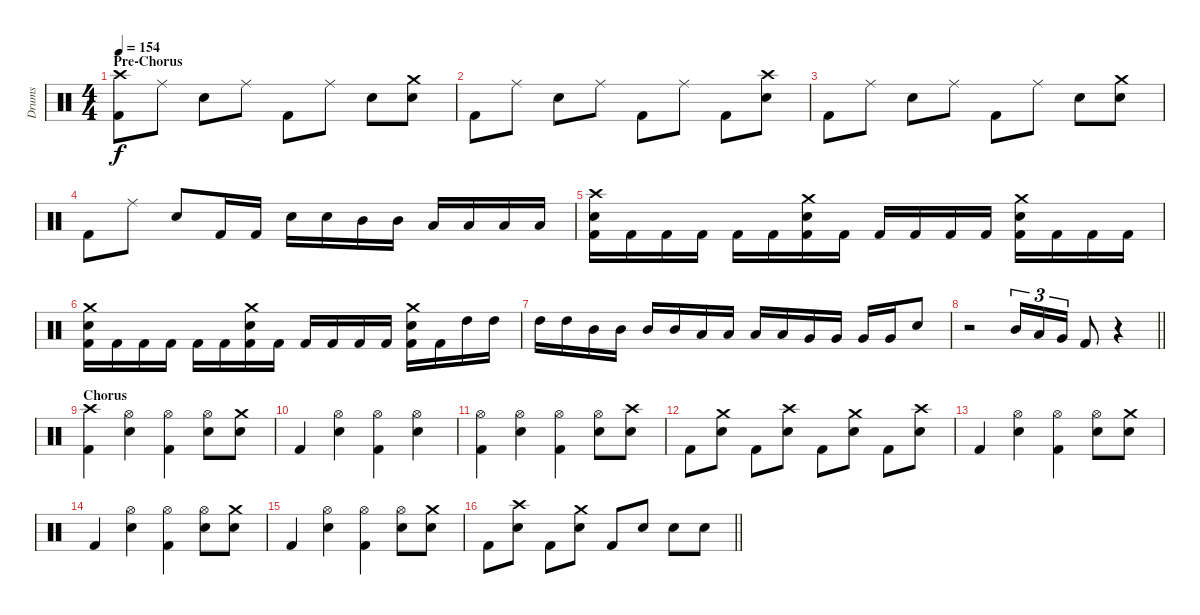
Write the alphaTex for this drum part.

\track ("Drums" "Drums") {instrument percussion}
\staff {score}
\articulation defaults
\ts (4 4)
\section ("" "Pre-Chorus")
\tempo 154
\clef neutral
\ks c
("Crash high (hit)" "Kick (hit) 2").8{dy f} "Ride (middle)".8 "Snare (hit) 2".8 "Ride (middle)".8 "Kick (hit) 2".8 "Ride (middle)".8 "Snare (hit) 2".8 ("Crash medium (hit)" "Snare (hit) 2").8 |
"Kick (hit) 2".8 "Ride (middle)".8 "Snare (hit) 2".8 "Ride (middle)".8 "Kick (hit) 2".8 "Ride (middle)".8 "Kick (hit) 2".8 ("Crash high (hit)" "Snare (hit) 2").8 |
"Kick (hit) 2".8 "Ride (middle)".8 "Snare (hit) 2".8 "Ride (middle)".8 "Kick (hit) 2".8 "Ride (middle)".8 "Snare (hit) 2".8 ("Crash medium (hit)" "Snare (hit) 2").8 |
"Kick (hit) 2".8 "Ride (middle)".8 "Snare (hit) 2".8 "Kick (hit) 2".16 "Kick (hit) 2".16 "Snare (hit) 2".16 "Snare (hit) 2".16 "Mid Tom (hit)".16 "Mid Tom (hit)".16 "Low Tom (hit)".16 "Low Tom (hit)".16 "Low Tom (hit)".16 "Low Tom (hit)".16 |
("Crash high (hit)" "Snare (hit) 2" "Kick (hit) 2").16 "Kick (hit) 2".16 "Kick (hit) 2".16 "Kick (hit) 2".16 "Kick (hit) 2".16 "Kick (hit) 2".16 ("Crash medium (hit)" "Snare (hit) 2" "Kick (hit) 2").16 "Kick (hit) 2".16 "Kick (hit) 2".16 "Kick (hit) 2".16 "Kick (hit) 2".16 "Kick (hit) 2".16 ("Crash medium (hit)" "Snare (hit) 2" "Kick (hit) 2").16 "Kick (hit) 2".16 "Kick (hit) 2".16 "Kick (hit) 2".16 |
("Crash medium (hit)" "Snare (hit) 2" "Kick (hit) 2").16 "Kick (hit) 2".16 "Kick (hit) 2".16 "Kick (hit) 2".16 "Kick (hit) 2".16 "Kick (hit) 2".16 ("Crash medium (hit)" "Snare (hit) 2" "Kick (hit) 2").16 "Kick (hit) 2".16 "Kick (hit) 2".16 "Kick (hit) 2".16 "Kick (hit) 2".16 "Kick (hit) 2".16 ("Crash medium (hit)" "Snare (hit) 2" "Kick (hit) 2").16 "Kick (hit) 2".16 "High Tom (hit)".16 "High Tom (hit)".16 |
"High Tom (hit)".16 "High Tom (hit)".16 "Mid Tom (hit)".16 "Mid Tom (hit)".16 "Mid Tom (hit)".16 "Mid Tom (hit)".16 "Low Tom (hit)".16 "Low Tom (hit)".16 "Low Tom (hit)".16 "Low Tom (hit)".16 "Very Low Tom (hit)".16 "Very Low Tom (hit)".16 "Very Low Tom (hit)".16 "Very Low Tom (hit)".16 "Snare (hit) 2".8 |
\barLineRight lightlight
r.2 "Mid Tom (hit)".16{tu (3 2)} "Low Tom (hit)".16{tu (3 2)} "Very Low Tom (hit)".16{tu (3 2)} "Kick (hit) 2".8 r.4 |
\section ("" "Chorus")
("Crash high (hit)" "Kick (hit) 2").4 ("Hi-Hat (open)" "Snare (hit) 2").4 ("Hi-Hat (open)" "Kick (hit) 2").4 ("Hi-Hat (open)" "Snare (hit) 2").8 ("Crash medium (hit)" "Snare (hit) 2").8 |
"Kick (hit) 2".4 ("Hi-Hat (open)" "Snare (hit) 2").4 ("Hi-Hat (open)" "Kick (hit) 2").4 ("Hi-Hat (open)" "Snare (hit) 2").4 |
("Hi-Hat (open)" "Kick (hit) 2").4 ("Hi-Hat (open)" "Snare (hit) 2").4 ("Hi-Hat (open)" "Kick (hit) 2").4 ("Hi-Hat (open)" "Snare (hit) 2").8 ("Crash high (hit)" "Snare (hit) 2").8 |
"Kick (hit) 2".8 ("Crash medium (hit)" "Snare (hit) 2").8 "Kick (hit) 2".8 ("Crash high (hit)" "Snare (hit) 2").8 "Kick (hit) 2".8 ("Crash medium (hit)" "Snare (hit) 2").8 "Kick (hit) 2".8 ("Crash high (hit)" "Snare (hit) 2").8 |
"Kick (hit) 2".4 ("Hi-Hat (open)" "Snare (hit) 2").4 ("Hi-Hat (open)" "Kick (hit) 2").4 ("Hi-Hat (open)" "Snare (hit) 2").8 ("Crash medium (hit)" "Snare (hit) 2").8 |
"Kick (hit) 2".4 ("Hi-Hat (open)" "Snare (hit) 2").4 ("Hi-Hat (open)" "Kick (hit) 2").4 ("Hi-Hat (open)" "Snare (hit) 2").8 ("Crash medium (hit)" "Snare (hit) 2").8 |
"Kick (hit) 2".4 ("Hi-Hat (open)" "Snare (hit) 2").4 ("Hi-Hat (open)" "Kick (hit) 2").4 ("Hi-Hat (open)" "Snare (hit) 2").8 ("Crash medium (hit)" "Snare (hit) 2").8 |
\barLineRight lightlight "Kick (hit) 2".8
("Crash high (hit)" "Snare (hit) 2").8 "Kick (hit) 2".8 ("Crash medium (hit)" "Snare (hit) 2").8 "Kick (hit) 2".8 "Snare (hit) 2".8 "Snare (hit) 2".8 "Snare (hit) 2".8
